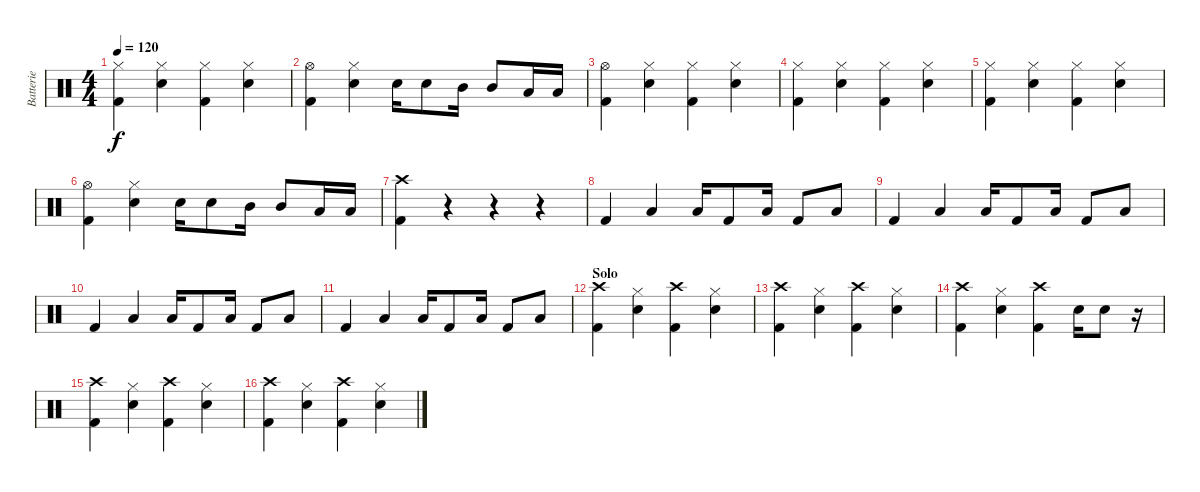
\track ("Batterie" "Batterie") {instrument percussion}
\staff {score}
\articulation defaults
\ts (4 4)
\tempo 120
\clef neutral
\ks c
("Hi-Hat (closed)" "Kick (hit) 2").4{dy f} ("Hi-Hat (closed)" "Snare (hit) 2").4 ("Hi-Hat (closed)" "Kick (hit) 2").4 ("Hi-Hat (closed)" "Snare (hit) 2").4 |
("Hi-Hat (open)" "Kick (hit) 2").4 ("Hi-Hat (closed)" "Snare (hit) 2").4 "Snare (hit) 2".16 "Snare (hit) 2".8 "Mid Tom (hit)".16 "Mid Tom (hit)".8 "Low Tom (hit)".16 "Low Tom (hit)".16 |
("Hi-Hat (open)" "Kick (hit) 2").4 ("Hi-Hat (closed)" "Snare (hit) 2").4 ("Hi-Hat (closed)" "Kick (hit) 2").4 ("Hi-Hat (closed)" "Snare (hit) 2").4 |
("Hi-Hat (closed)" "Kick (hit) 2").4 ("Hi-Hat (closed)" "Snare (hit) 2").4 ("Hi-Hat (closed)" "Kick (hit) 2").4 ("Hi-Hat (closed)" "Snare (hit) 2").4 |
("Hi-Hat (closed)" "Kick (hit) 2").4 ("Hi-Hat (closed)" "Snare (hit) 2").4 ("Hi-Hat (closed)" "Kick (hit) 2").4 ("Hi-Hat (closed)" "Snare (hit) 2").4 |
("Hi-Hat (open)" "Kick (hit) 2").4 ("Hi-Hat (closed)" "Snare (hit) 2").4 "Snare (hit) 2".16 "Snare (hit) 2".8 "Mid Tom (hit)".16 "Mid Tom (hit)".8 "Low Tom (hit)".16 "Low Tom (hit)".16 |
("Crash high (hit)" "Kick (hit) 2").4 r.4 r.4 r.4 |
"Kick (hit) 2".4 "Low Floor Tom (hit)".4 "Low Floor Tom (hit)".16 "Kick (hit) 2".8 "Low Floor Tom (hit)".16 "Kick (hit) 2".8 "Low Floor Tom (hit)".8 |
"Kick (hit) 2".4 "Low Floor Tom (hit)".4 "Low Floor Tom (hit)".16 "Kick (hit) 2".8 "Low Floor Tom (hit)".16 "Kick (hit) 2".8 "Low Floor Tom (hit)".8 |
"Kick (hit) 2".4 "Low Floor Tom (hit)".4 "Low Floor Tom (hit)".16 "Kick (hit) 2".8 "Low Floor Tom (hit)".16 "Kick (hit) 2".8 "Low Floor Tom (hit)".8 |
"Kick (hit) 2".4 "Low Floor Tom (hit)".4 "Low Floor Tom (hit)".16 "Kick (hit) 2".8 "Low Floor Tom (hit)".16 "Kick (hit) 2".8 "Low Floor Tom (hit)".8 |
\section ("" "Solo")
("Crash high (hit)" "Kick (hit) 2").4 ("Hi-Hat (closed)" "Snare (hit) 2").4 ("Crash high (hit)" "Kick (hit) 2").4 ("Hi-Hat (closed)" "Snare (hit) 2").4 |
("Crash high (hit)" "Kick (hit) 2").4 ("Hi-Hat (closed)" "Snare (hit) 2").4 ("Crash high (hit)" "Kick (hit) 2").4 ("Hi-Hat (closed)" "Snare (hit) 2").4 |
("Crash high (hit)" "Kick (hit) 2").4 ("Hi-Hat (closed)" "Snare (hit) 2").4 ("Crash high (hit)" "Kick (hit) 2").4 "Snare (hit) 2".16 "Snare (hit) 2".8 r.16 |
("Crash high (hit)" "Kick (hit) 2").4 ("Hi-Hat (closed)" "Snare (hit) 2").4 ("Crash high (hit)" "Kick (hit) 2").4 ("Hi-Hat (closed)" "Snare (hit) 2").4 |
("Crash high (hit)" "Kick (hit) 2").4 ("Hi-Hat (closed)" "Snare (hit) 2").4 ("Crash high (hit)" "Kick (hit) 2").4 ("Hi-Hat (closed)" "Snare (hit) 2").4
